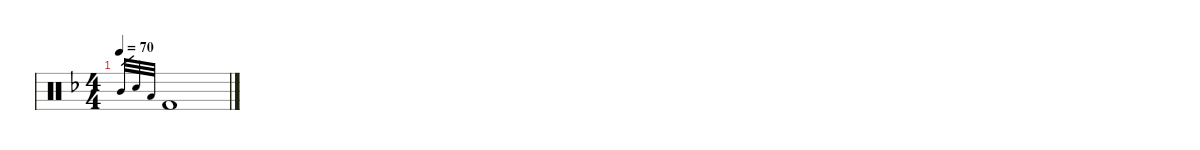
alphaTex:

\defaultSystemsLayout 4
\hideDynamics
\bracketExtendMode nobrackets
\singleTrackTrackNamePolicy hidden
\multiTrackTrackNamePolicy hidden
\otherSystemsTrackNameOrientation horizontal
\track ("Percussion" "drm.") {defaultSystemsLayout 4 instrument percussion}
\staff {score}
\articulation defaults
\ts (4 4)
\tempo 70
\clef neutral
\ks f "Mid Tom (hit)"{acc forcenatural}.32{gr dy mp beam Up} "Snare (hit) 2"{acc forcenatural}.32{gr beam Up} "Low Tom (hit)"{acc forcenatural}.32{gr beam Up} "Kick (hit) 2"{acc forcenatural}.1{dy f beam Up}
